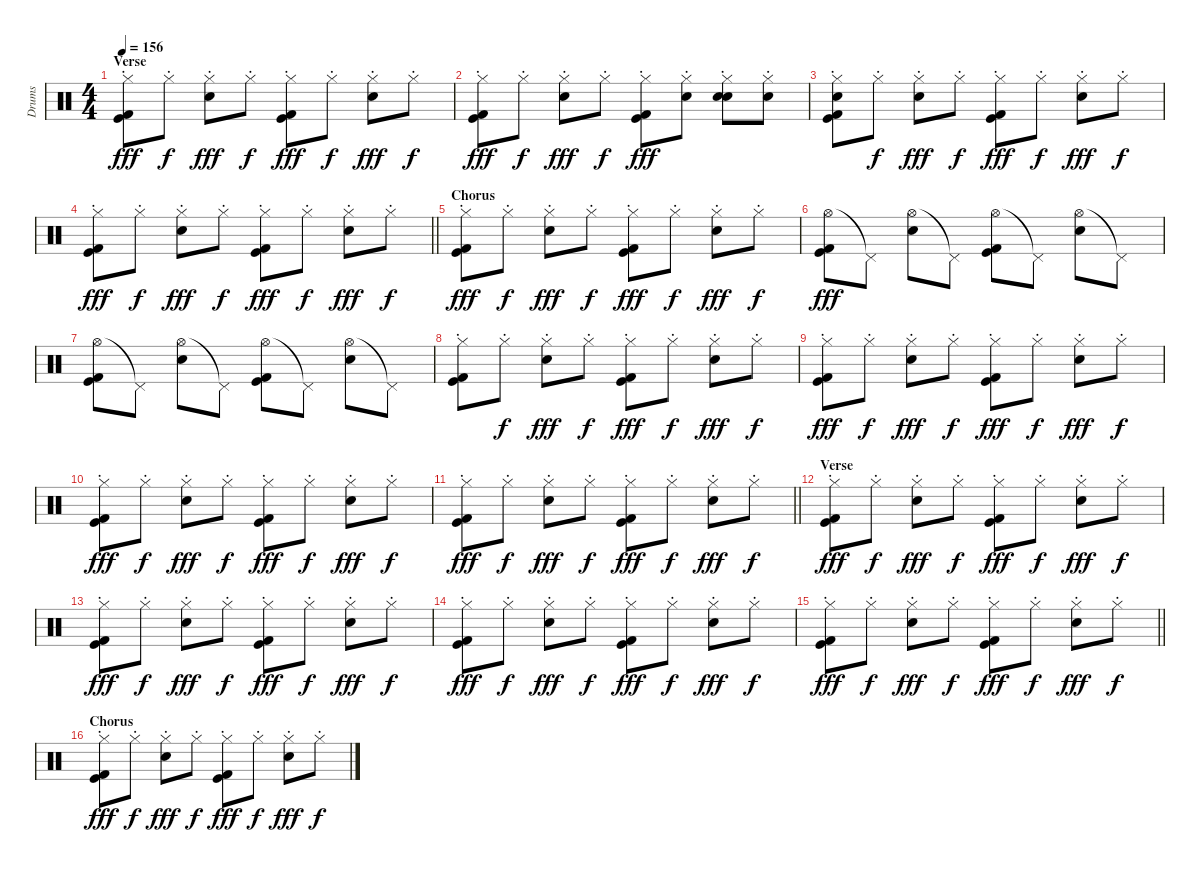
\track ("Drums" "Drums") {instrument percussion}
\staff {score}
\articulation defaults
\ts (4 4)
\section ("" "Verse")
\tempo 156
\clef neutral
\ks c
("Hi-Hat (closed)"{st} "Kick (hit) 2" "Kick (hit)").8{dy fff} "Hi-Hat (closed)"{st}.8{dy f} ("Hi-Hat (closed)"{st} "Electric Snare (hit)").8{dy fff} "Hi-Hat (closed)"{st}.8{dy f} ("Hi-Hat (closed)"{st} "Kick (hit) 2" "Kick (hit)").8{dy fff} "Hi-Hat (closed)"{st}.8{dy f} ("Hi-Hat (closed)"{st} "Electric Snare (hit)").8{dy fff} "Hi-Hat (closed)"{st}.8{dy f} |
("Hi-Hat (closed)"{st} "Kick (hit) 2" "Kick (hit)").8{dy fff} "Hi-Hat (closed)"{st}.8{dy f} ("Hi-Hat (closed)"{st} "Electric Snare (hit)").8{dy fff} "Hi-Hat (closed)"{st}.8{dy f} ("Hi-Hat (closed)"{st} "Kick (hit) 2" "Kick (hit)").8{dy fff} ("Hi-Hat (closed)"{st} "Hand Clap (hit)").8 ("Hi-Hat (closed)"{st} "Hand Clap (hit)" "Electric Snare (hit)").8 ("Hi-Hat (closed)"{st} "Hand Clap (hit)").8 |
("Hi-Hat (closed)"{st} "Hand Clap (hit)" "Kick (hit) 2" "Kick (hit)").8 "Hi-Hat (closed)"{st}.8{dy f} ("Hi-Hat (closed)"{st} "Electric Snare (hit)").8{dy fff} "Hi-Hat (closed)"{st}.8{dy f} ("Hi-Hat (closed)"{st} "Kick (hit) 2" "Kick (hit)").8{dy fff} "Hi-Hat (closed)"{st}.8{dy f} ("Hi-Hat (closed)"{st} "Electric Snare (hit)").8{dy fff} "Hi-Hat (closed)"{st}.8{dy f} |
\barLineRight lightlight
("Hi-Hat (closed)"{st} "Kick (hit) 2" "Kick (hit)").8{dy fff} "Hi-Hat (closed)"{st}.8{dy f} ("Hi-Hat (closed)"{st} "Electric Snare (hit)").8{dy fff} "Hi-Hat (closed)"{st}.8{dy f} ("Hi-Hat (closed)"{st} "Kick (hit) 2" "Kick (hit)").8{dy fff} "Hi-Hat (closed)"{st}.8{dy f} ("Hi-Hat (closed)"{st} "Electric Snare (hit)").8{dy fff} "Hi-Hat (closed)"{st}.8{dy f} |
\section ("" "Chorus")
("Hi-Hat (closed)"{st} "Kick (hit) 2" "Kick (hit)").8{dy fff} "Hi-Hat (closed)"{st}.8{dy f} ("Hi-Hat (closed)"{st} "Electric Snare (hit)").8{dy fff} "Hi-Hat (closed)"{st}.8{dy f} ("Hi-Hat (closed)"{st} "Kick (hit) 2" "Kick (hit)").8{dy fff} "Hi-Hat (closed)"{st}.8{dy f} ("Hi-Hat (closed)"{st} "Electric Snare (hit)").8{dy fff} "Hi-Hat (closed)"{st}.8{dy f} |
("Hi-Hat (open)" "Kick (hit) 2" "Kick (hit)").8{dy fff} "Pedal Hi-Hat (hit)"{t}.8 ("Hi-Hat (open)" "Electric Snare (hit)").8 "Pedal Hi-Hat (hit)"{t}.8 ("Hi-Hat (open)" "Kick (hit) 2" "Kick (hit)").8 "Pedal Hi-Hat (hit)"{t}.8 ("Hi-Hat (open)" "Electric Snare (hit)").8 "Pedal Hi-Hat (hit)"{t}.8 |
("Hi-Hat (open)" "Kick (hit) 2" "Kick (hit)").8 "Pedal Hi-Hat (hit)"{t}.8 ("Hi-Hat (open)" "Electric Snare (hit)").8 "Pedal Hi-Hat (hit)"{t}.8 ("Hi-Hat (open)" "Kick (hit) 2" "Kick (hit)").8 "Pedal Hi-Hat (hit)"{t}.8 ("Hi-Hat (open)" "Electric Snare (hit)").8 "Pedal Hi-Hat (hit)"{t}.8 |
("Hi-Hat (closed)"{st} "Kick (hit) 2" "Kick (hit)").8 "Hi-Hat (closed)"{st}.8{dy f} ("Hi-Hat (closed)"{st} "Electric Snare (hit)").8{dy fff} "Hi-Hat (closed)"{st}.8{dy f} ("Hi-Hat (closed)"{st} "Kick (hit) 2" "Kick (hit)").8{dy fff} "Hi-Hat (closed)"{st}.8{dy f} ("Hi-Hat (closed)"{st} "Electric Snare (hit)").8{dy fff} "Hi-Hat (closed)"{st}.8{dy f} |
("Hi-Hat (closed)"{st} "Kick (hit) 2" "Kick (hit)").8{dy fff} "Hi-Hat (closed)"{st}.8{dy f} ("Hi-Hat (closed)"{st} "Electric Snare (hit)").8{dy fff} "Hi-Hat (closed)"{st}.8{dy f} ("Hi-Hat (closed)"{st} "Kick (hit) 2" "Kick (hit)").8{dy fff} "Hi-Hat (closed)"{st}.8{dy f} ("Hi-Hat (closed)"{st} "Electric Snare (hit)").8{dy fff} "Hi-Hat (closed)"{st}.8{dy f} |
("Hi-Hat (closed)"{st} "Kick (hit) 2" "Kick (hit)").8{dy fff} "Hi-Hat (closed)"{st}.8{dy f} ("Hi-Hat (closed)"{st} "Electric Snare (hit)").8{dy fff} "Hi-Hat (closed)"{st}.8{dy f} ("Hi-Hat (closed)"{st} "Kick (hit) 2" "Kick (hit)").8{dy fff} "Hi-Hat (closed)"{st}.8{dy f} ("Hi-Hat (closed)"{st} "Electric Snare (hit)").8{dy fff} "Hi-Hat (closed)"{st}.8{dy f} |
\barLineRight lightlight
("Hi-Hat (closed)"{st} "Kick (hit) 2" "Kick (hit)").8{dy fff} "Hi-Hat (closed)"{st}.8{dy f} ("Hi-Hat (closed)"{st} "Electric Snare (hit)").8{dy fff} "Hi-Hat (closed)"{st}.8{dy f} ("Hi-Hat (closed)"{st} "Kick (hit) 2" "Kick (hit)").8{dy fff} "Hi-Hat (closed)"{st}.8{dy f} ("Hi-Hat (closed)"{st} "Electric Snare (hit)").8{dy fff} "Hi-Hat (closed)"{st}.8{dy f} |
\section ("" "Verse")
("Hi-Hat (closed)"{st} "Kick (hit) 2" "Kick (hit)").8{dy fff} "Hi-Hat (closed)"{st}.8{dy f} ("Hi-Hat (closed)"{st} "Electric Snare (hit)").8{dy fff} "Hi-Hat (closed)"{st}.8{dy f} ("Hi-Hat (closed)"{st} "Kick (hit) 2" "Kick (hit)").8{dy fff} "Hi-Hat (closed)"{st}.8{dy f} ("Hi-Hat (closed)"{st} "Electric Snare (hit)").8{dy fff} "Hi-Hat (closed)"{st}.8{dy f} |
("Hi-Hat (closed)"{st} "Kick (hit) 2" "Kick (hit)").8{dy fff} "Hi-Hat (closed)"{st}.8{dy f} ("Hi-Hat (closed)"{st} "Electric Snare (hit)").8{dy fff} "Hi-Hat (closed)"{st}.8{dy f} ("Hi-Hat (closed)"{st} "Kick (hit) 2" "Kick (hit)").8{dy fff} "Hi-Hat (closed)"{st}.8{dy f} ("Hi-Hat (closed)"{st} "Electric Snare (hit)").8{dy fff} "Hi-Hat (closed)"{st}.8{dy f} |
("Hi-Hat (closed)"{st} "Kick (hit) 2" "Kick (hit)").8{dy fff} "Hi-Hat (closed)"{st}.8{dy f} ("Hi-Hat (closed)"{st} "Electric Snare (hit)").8{dy fff} "Hi-Hat (closed)"{st}.8{dy f} ("Hi-Hat (closed)"{st} "Kick (hit) 2" "Kick (hit)").8{dy fff} "Hi-Hat (closed)"{st}.8{dy f} ("Hi-Hat (closed)"{st} "Electric Snare (hit)").8{dy fff} "Hi-Hat (closed)"{st}.8{dy f} |
\barLineRight lightlight
("Hi-Hat (closed)"{st} "Kick (hit) 2" "Kick (hit)").8{dy fff} "Hi-Hat (closed)"{st}.8{dy f} ("Hi-Hat (closed)"{st} "Electric Snare (hit)").8{dy fff} "Hi-Hat (closed)"{st}.8{dy f} ("Hi-Hat (closed)"{st} "Kick (hit) 2" "Kick (hit)").8{dy fff} "Hi-Hat (closed)"{st}.8{dy f} ("Hi-Hat (closed)"{st} "Electric Snare (hit)").8{dy fff} "Hi-Hat (closed)"{st}.8{dy f} |
\section ("" "Chorus")
("Hi-Hat (closed)"{st} "Kick (hit) 2" "Kick (hit)").8{dy fff} "Hi-Hat (closed)"{st}.8{dy f} ("Hi-Hat (closed)"{st} "Electric Snare (hit)").8{dy fff} "Hi-Hat (closed)"{st}.8{dy f} ("Hi-Hat (closed)"{st} "Kick (hit) 2" "Kick (hit)").8{dy fff} "Hi-Hat (closed)"{st}.8{dy f} ("Hi-Hat (closed)"{st} "Electric Snare (hit)").8{dy fff} "Hi-Hat (closed)"{st}.8{dy f}
